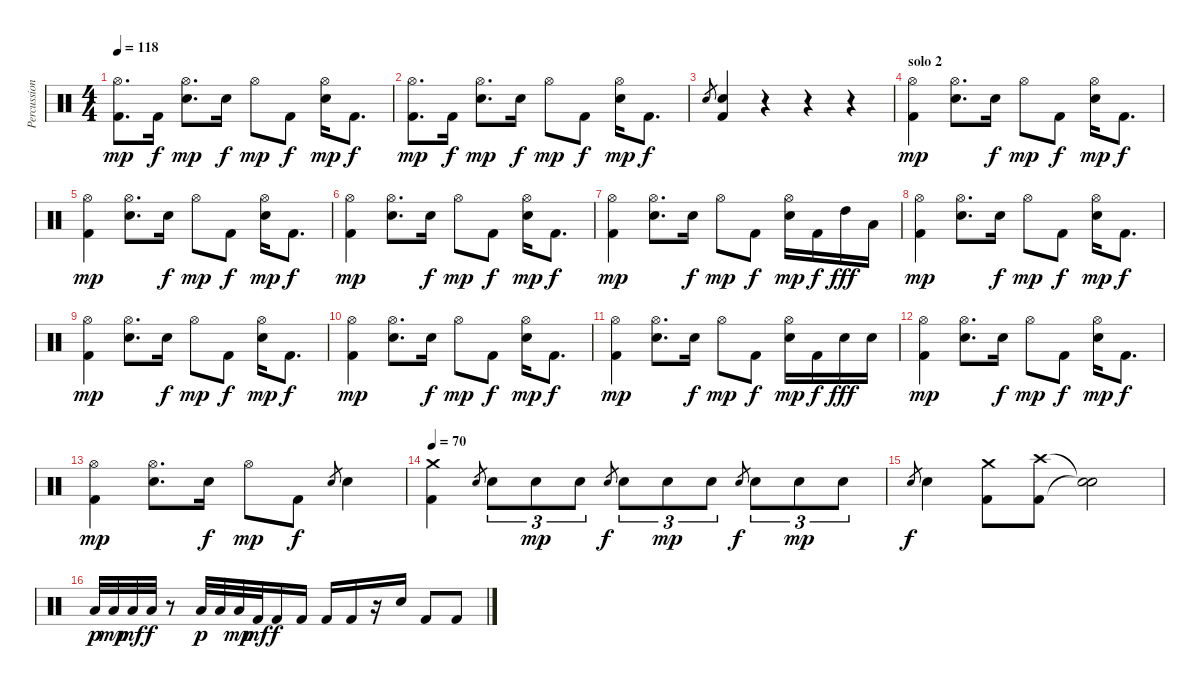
\track ("Percussions" "Percussion") {instrument percussion}
\staff {score}
\articulation defaults
\ts (4 4)
\tempo 118
\clef neutral
\ks c
("Hi-Hat (open)" "Kick (hit) 2").8{d dy mp} "Kick (hit) 2".16{dy f} ("Hi-Hat (open)" "Snare (hit) 2").8{d dy mp} "Electric Snare (hit)".16{dy f} "Hi-Hat (open)".8{dy mp} "Kick (hit) 2".8{dy f} ("Hi-Hat (open)" "Snare (hit) 2").16{dy mp} "Kick (hit) 2".8{d dy f} |
("Hi-Hat (open)" "Kick (hit) 2").8{d dy mp} "Kick (hit) 2".16{dy f} ("Hi-Hat (open)" "Snare (hit) 2").8{d dy mp} "Electric Snare (hit)".16{dy f} "Hi-Hat (open)".8{dy mp} "Kick (hit) 2".8{dy f} ("Hi-Hat (open)" "Snare (hit) 2").16{dy mp} "Kick (hit) 2".8{d dy f} |
"Snare (hit) 2".8{gr} ("Snare (hit) 2" "Kick (hit) 2").4 r.4 r.4 r.4 |
\section ("" "solo 2")
("Hi-Hat (open)" "Kick (hit) 2").4{dy mp} ("Hi-Hat (open)" "Snare (hit) 2").8{d} "Snare (hit) 2".16{dy f} "Hi-Hat (open)".8{dy mp} "Kick (hit) 2".8{dy f} ("Hi-Hat (open)" "Snare (hit) 2").16{dy mp} "Kick (hit) 2".8{d dy f} |
("Hi-Hat (open)" "Kick (hit) 2").4{dy mp} ("Hi-Hat (open)" "Snare (hit) 2").8{d} "Snare (hit) 2".16{dy f} "Hi-Hat (open)".8{dy mp} "Kick (hit) 2".8{dy f} ("Hi-Hat (open)" "Snare (hit) 2").16{dy mp} "Kick (hit) 2".8{d dy f} |
("Hi-Hat (open)" "Kick (hit) 2").4{dy mp} ("Hi-Hat (open)" "Snare (hit) 2").8{d} "Snare (hit) 2".16{dy f} "Hi-Hat (open)".8{dy mp} "Kick (hit) 2".8{dy f} ("Hi-Hat (open)" "Snare (hit) 2").16{dy mp} "Kick (hit) 2".8{d dy f} |
("Hi-Hat (open)" "Kick (hit) 2").4{dy mp} ("Hi-Hat (open)" "Snare (hit) 2").8{d} "Snare (hit) 2".16{dy f} "Hi-Hat (open)".8{dy mp} "Kick (hit) 2".8{dy f} ("Hi-Hat (open)" "Snare (hit) 2").16{dy mp} "Kick (hit) 2".16{dy f} "High Tom (hit)".16{dy fff} "Low Tom (hit)".16 |
("Hi-Hat (open)" "Kick (hit) 2").4{dy mp} ("Hi-Hat (open)" "Snare (hit) 2").8{d} "Snare (hit) 2".16{dy f} "Hi-Hat (open)".8{dy mp} "Kick (hit) 2".8{dy f} ("Hi-Hat (open)" "Snare (hit) 2").16{dy mp} "Kick (hit) 2".8{d dy f} |
("Hi-Hat (open)" "Kick (hit) 2").4{dy mp} ("Hi-Hat (open)" "Snare (hit) 2").8{d} "Snare (hit) 2".16{dy f} "Hi-Hat (open)".8{dy mp} "Kick (hit) 2".8{dy f} ("Hi-Hat (open)" "Snare (hit) 2").16{dy mp} "Kick (hit) 2".8{d dy f} |
("Hi-Hat (open)" "Kick (hit) 2").4{dy mp} ("Hi-Hat (open)" "Snare (hit) 2").8{d} "Snare (hit) 2".16{dy f} "Hi-Hat (open)".8{dy mp} "Kick (hit) 2".8{dy f} ("Hi-Hat (open)" "Snare (hit) 2").16{dy mp} "Kick (hit) 2".8{d dy f} |
("Hi-Hat (open)" "Kick (hit) 2").4{dy mp} ("Hi-Hat (open)" "Snare (hit) 2").8{d} "Snare (hit) 2".16{dy f} "Hi-Hat (open)".8{dy mp} "Kick (hit) 2".8{dy f} ("Hi-Hat (open)" "Snare (hit) 2").16{dy mp} "Kick (hit) 2".16{dy f} "Snare (hit) 2".16{dy fff} "Snare (hit) 2".16 |
("Hi-Hat (open)" "Kick (hit) 2").4{dy mp} ("Hi-Hat (open)" "Snare (hit) 2").8{d} "Snare (hit) 2".16{dy f} "Hi-Hat (open)".8{dy mp} "Kick (hit) 2".8{dy f} ("Hi-Hat (open)" "Snare (hit) 2").16{dy mp} "Kick (hit) 2".8{d dy f} |
("Hi-Hat (open)" "Kick (hit) 2").4{dy mp} ("Hi-Hat (open)" "Snare (hit) 2").8{d} "Snare (hit) 2".16{dy f} "Hi-Hat (open)".8{dy mp} "Kick (hit) 2".8{dy f} "Snare (hit) 2".8{gr} "Snare (hit) 2".4 |
\tempo 70
("Crash medium (hit)" "Kick (hit) 2").4 "Electric Snare (hit)".8{gr} "Electric Snare (hit)".8{tu (3 2)} "Electric Snare (hit)".8{tu (3 2) dy mp} "Electric Snare (hit)".8{tu (3 2)} "Electric Snare (hit)".8{gr dy f} "Electric Snare (hit)".8{tu (3 2)} "Electric Snare (hit)".8{tu (3 2) dy mp} "Electric Snare (hit)".8{tu (3 2)} "Electric Snare (hit)".8{gr dy f} "Electric Snare (hit)".8{tu (3 2)} "Electric Snare (hit)".8{tu (3 2) dy mp} "Electric Snare (hit)".8{tu (3 2)} |
"Electric Snare (hit)".8{gr dy f} "Electric Snare (hit)".4 ("Crash medium (hit)" "Kick (hit) 2").8 ("Crash high (hit)" "Kick (hit) 2").8 ("Snare (hit)"{t} "Snare (hit)"{t}).2 |
"Low Tom (hit)".32{dy p} "Low Tom (hit)".32{dy mp} "Low Tom (hit)".32{dy mf} "Low Tom (hit)".32{dy f} r.8 "Low Tom (hit)".32{dy p} "Low Tom (hit)".32 "Low Tom (hit)".32{dy mp} "Kick (hit) 2".32{dy mf} "Kick (hit) 2".16{dy f} "Kick (hit) 2".16 "Kick (hit) 2".16 "Kick (hit) 2".16 r.16 "Electric Snare (hit)".16 "Kick (hit) 2".8 "Kick (hit) 2".8
